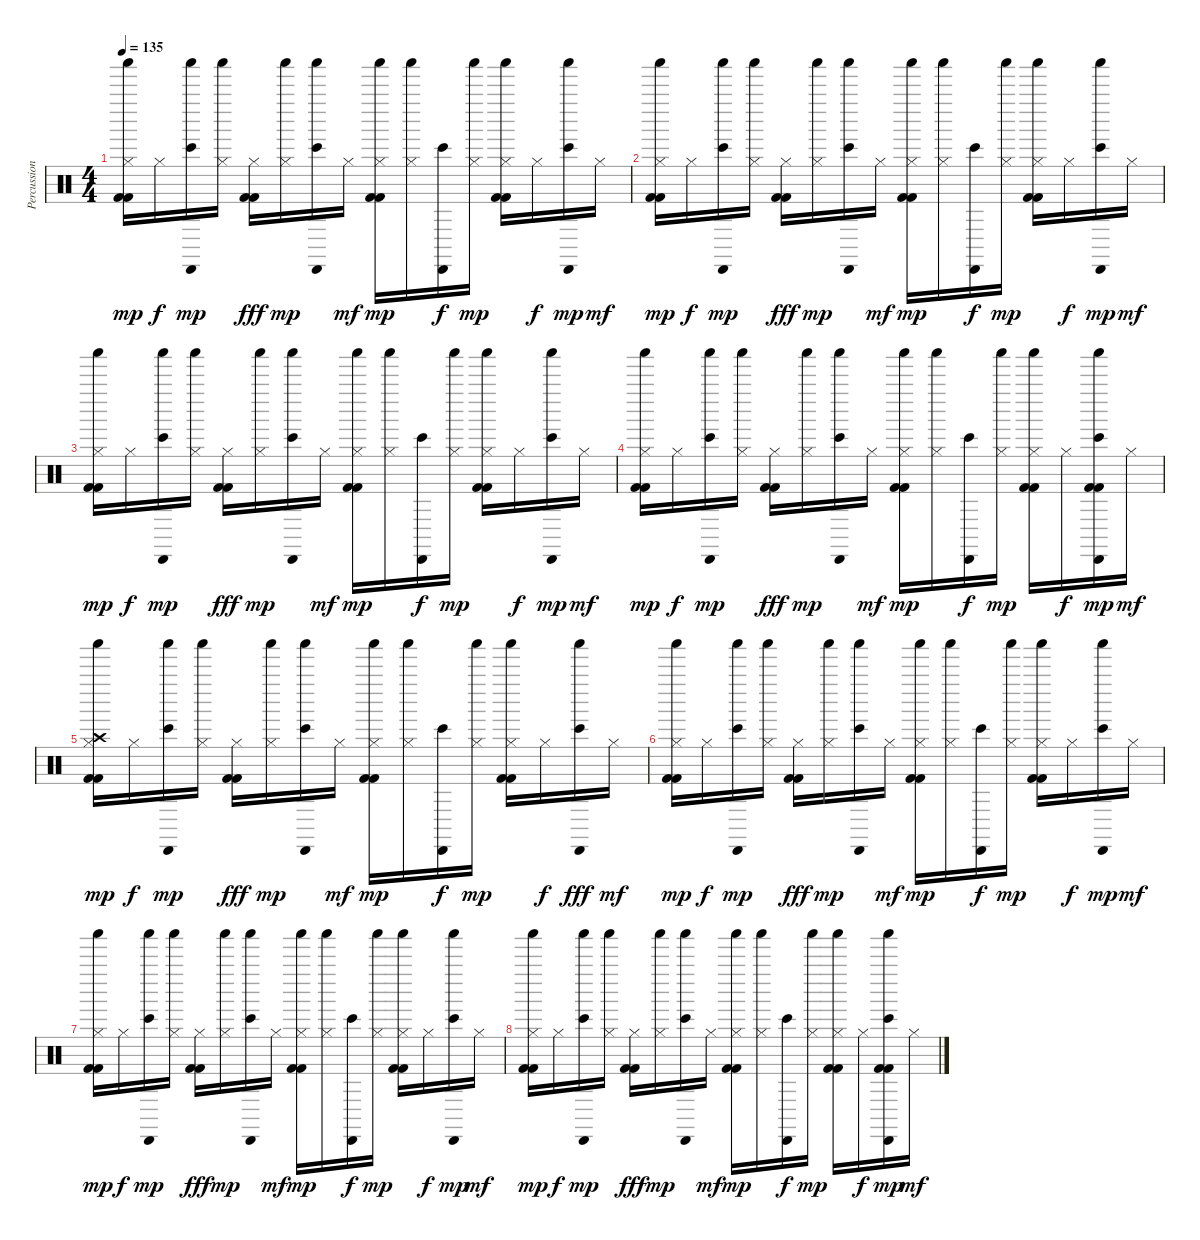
\track ("Percussion" "Percussion") {instrument percussion}
\staff {score}
\articulation defaults
\ts (4 4)
\tempo 135
\clef neutral
\ks c
("Hi-Hat (closed)" "Kick (hit) 2" "Kick (hit) 2" "Shaker (hit)").16{dy mp} "Hi-Hat (closed)".16{dy f} ("Cabasa (hit)" "Bongo High (hit)" "Shaker (hit)").16{dy mp} ("Hi-Hat (closed)" "Shaker (hit)").16 ("Hi-Hat (closed)" "Kick (hit) 2" "Kick (hit) 2").16{dy fff} ("Hi-Hat (closed)" "Shaker (hit)").16{dy mp} ("Cabasa (hit)" "Bongo High (hit)" "Shaker (hit)").16 "Hi-Hat (closed)".16{dy mf} ("Hi-Hat (closed)" "Kick (hit) 2" "Kick (hit) 2" "Shaker (hit)").16{dy mp} ("Hi-Hat (closed)" "Shaker (hit)").16 ("Cabasa (hit)" "Bongo High (hit)").16{dy f} ("Hi-Hat (closed)" "Shaker (hit)").16{dy mp} ("Hi-Hat (closed)" "Kick (hit) 2" "Kick (hit) 2" "Shaker (hit)").16 "Hi-Hat (closed)".16{dy f} ("Cabasa (hit)" "Bongo High (hit)" "Shaker (hit)").16{dy mp} "Hi-Hat (closed)".16{dy mf} |
("Hi-Hat (closed)" "Kick (hit) 2" "Kick (hit) 2" "Shaker (hit)").16{dy mp} "Hi-Hat (closed)".16{dy f} ("Cabasa (hit)" "Bongo High (hit)" "Shaker (hit)").16{dy mp} ("Hi-Hat (closed)" "Shaker (hit)").16 ("Hi-Hat (closed)" "Kick (hit) 2" "Kick (hit) 2").16{dy fff} ("Hi-Hat (closed)" "Shaker (hit)").16{dy mp} ("Cabasa (hit)" "Bongo High (hit)" "Shaker (hit)").16 "Hi-Hat (closed)".16{dy mf} ("Hi-Hat (closed)" "Kick (hit) 2" "Kick (hit) 2" "Shaker (hit)").16{dy mp} ("Hi-Hat (closed)" "Shaker (hit)").16 ("Cabasa (hit)" "Bongo High (hit)").16{dy f} ("Hi-Hat (closed)" "Shaker (hit)").16{dy mp} ("Hi-Hat (closed)" "Kick (hit) 2" "Kick (hit) 2" "Shaker (hit)").16 "Hi-Hat (closed)".16{dy f} ("Cabasa (hit)" "Bongo High (hit)" "Shaker (hit)").16{dy mp} "Hi-Hat (closed)".16{dy mf} |
("Hi-Hat (closed)" "Kick (hit) 2" "Kick (hit) 2" "Shaker (hit)").16{dy mp} "Hi-Hat (closed)".16{dy f} ("Cabasa (hit)" "Bongo High (hit)" "Shaker (hit)").16{dy mp} ("Hi-Hat (closed)" "Shaker (hit)").16 ("Hi-Hat (closed)" "Kick (hit) 2" "Kick (hit) 2").16{dy fff} ("Hi-Hat (closed)" "Shaker (hit)").16{dy mp} ("Cabasa (hit)" "Bongo High (hit)" "Shaker (hit)").16 "Hi-Hat (closed)".16{dy mf} ("Hi-Hat (closed)" "Kick (hit) 2" "Kick (hit) 2" "Shaker (hit)").16{dy mp} ("Hi-Hat (closed)" "Shaker (hit)").16 ("Cabasa (hit)" "Bongo High (hit)").16{dy f} ("Hi-Hat (closed)" "Shaker (hit)").16{dy mp} ("Hi-Hat (closed)" "Kick (hit) 2" "Kick (hit) 2" "Shaker (hit)").16 "Hi-Hat (closed)".16{dy f} ("Cabasa (hit)" "Bongo High (hit)" "Shaker (hit)").16{dy mp} "Hi-Hat (closed)".16{dy mf} |
("Hi-Hat (closed)" "Kick (hit) 2" "Kick (hit) 2" "Shaker (hit)").16{dy mp} "Hi-Hat (closed)".16{dy f} ("Cabasa (hit)" "Bongo High (hit)" "Shaker (hit)").16{dy mp} ("Hi-Hat (closed)" "Shaker (hit)").16 ("Hi-Hat (closed)" "Kick (hit) 2" "Kick (hit) 2").16{dy fff} ("Hi-Hat (closed)" "Shaker (hit)").16{dy mp} ("Cabasa (hit)" "Bongo High (hit)" "Shaker (hit)").16 "Hi-Hat (closed)".16{dy mf} ("Hi-Hat (closed)" "Kick (hit) 2" "Kick (hit) 2" "Shaker (hit)").16{dy mp} ("Hi-Hat (closed)" "Shaker (hit)").16 ("Cabasa (hit)" "Bongo High (hit)").16{dy f} ("Hi-Hat (closed)" "Shaker (hit)").16{dy mp} ("Hi-Hat (closed)" "Kick (hit) 2" "Kick (hit) 2" "Shaker (hit)").16 "Hi-Hat (closed)".16{dy f} ("Cabasa (hit)" "Bongo High (hit)" "Kick (hit) 2" "Kick (hit) 2" "Shaker (hit)").16{dy mp} "Hi-Hat (closed)".16{dy mf} |
("Crash high (hit)" "Hi-Hat (closed)" "Kick (hit) 2" "Kick (hit) 2" "Shaker (hit)").16{dy mp} "Hi-Hat (closed)".16{dy f} ("Cabasa (hit)" "Bongo High (hit)" "Shaker (hit)").16{dy mp} ("Hi-Hat (closed)" "Shaker (hit)").16 ("Hi-Hat (closed)" "Kick (hit) 2" "Kick (hit) 2").16{dy fff} ("Hi-Hat (closed)" "Shaker (hit)").16{dy mp} ("Cabasa (hit)" "Bongo High (hit)" "Shaker (hit)").16 "Hi-Hat (closed)".16{dy mf} ("Hi-Hat (closed)" "Kick (hit) 2" "Kick (hit) 2" "Shaker (hit)").16{dy mp} ("Hi-Hat (closed)" "Shaker (hit)").16 ("Cabasa (hit)" "Bongo High (hit)").16{dy f} ("Hi-Hat (closed)" "Shaker (hit)").16{dy mp} ("Hi-Hat (closed)" "Kick (hit) 2" "Kick (hit) 2" "Shaker (hit)").16 "Hi-Hat (closed)".16{dy f} ("Cabasa (hit)" "Bongo High (hit)" "Shaker (hit)").16{dy fff} "Hi-Hat (closed)".16{dy mf} |
("Hi-Hat (closed)" "Kick (hit) 2" "Kick (hit) 2" "Shaker (hit)").16{dy mp} "Hi-Hat (closed)".16{dy f} ("Cabasa (hit)" "Bongo High (hit)" "Shaker (hit)").16{dy mp} ("Hi-Hat (closed)" "Shaker (hit)").16 ("Hi-Hat (closed)" "Kick (hit) 2" "Kick (hit) 2").16{dy fff} ("Hi-Hat (closed)" "Shaker (hit)").16{dy mp} ("Cabasa (hit)" "Bongo High (hit)" "Shaker (hit)").16 "Hi-Hat (closed)".16{dy mf} ("Hi-Hat (closed)" "Kick (hit) 2" "Kick (hit) 2" "Shaker (hit)").16{dy mp} ("Hi-Hat (closed)" "Shaker (hit)").16 ("Cabasa (hit)" "Bongo High (hit)").16{dy f} ("Hi-Hat (closed)" "Shaker (hit)").16{dy mp} ("Hi-Hat (closed)" "Kick (hit) 2" "Kick (hit) 2" "Shaker (hit)").16 "Hi-Hat (closed)".16{dy f} ("Cabasa (hit)" "Bongo High (hit)" "Shaker (hit)").16{dy mp} "Hi-Hat (closed)".16{dy mf} |
("Hi-Hat (closed)" "Kick (hit) 2" "Kick (hit) 2" "Shaker (hit)").16{dy mp} "Hi-Hat (closed)".16{dy f} ("Cabasa (hit)" "Bongo High (hit)" "Shaker (hit)").16{dy mp} ("Hi-Hat (closed)" "Shaker (hit)").16 ("Hi-Hat (closed)" "Kick (hit) 2" "Kick (hit) 2").16{dy fff} ("Hi-Hat (closed)" "Shaker (hit)").16{dy mp} ("Cabasa (hit)" "Bongo High (hit)" "Shaker (hit)").16 "Hi-Hat (closed)".16{dy mf} ("Hi-Hat (closed)" "Kick (hit) 2" "Kick (hit) 2" "Shaker (hit)").16{dy mp} ("Hi-Hat (closed)" "Shaker (hit)").16 ("Cabasa (hit)" "Bongo High (hit)").16{dy f} ("Hi-Hat (closed)" "Shaker (hit)").16{dy mp} ("Hi-Hat (closed)" "Kick (hit) 2" "Kick (hit) 2" "Shaker (hit)").16 "Hi-Hat (closed)".16{dy f} ("Cabasa (hit)" "Bongo High (hit)" "Shaker (hit)").16{dy mp} "Hi-Hat (closed)".16{dy mf} |
("Hi-Hat (closed)" "Kick (hit) 2" "Kick (hit) 2" "Shaker (hit)").16{dy mp} "Hi-Hat (closed)".16{dy f} ("Cabasa (hit)" "Bongo High (hit)" "Shaker (hit)").16{dy mp} ("Hi-Hat (closed)" "Shaker (hit)").16 ("Hi-Hat (closed)" "Kick (hit) 2" "Kick (hit) 2").16{dy fff} ("Hi-Hat (closed)" "Shaker (hit)").16{dy mp} ("Cabasa (hit)" "Bongo High (hit)" "Shaker (hit)").16 "Hi-Hat (closed)".16{dy mf} ("Hi-Hat (closed)" "Kick (hit) 2" "Kick (hit) 2" "Shaker (hit)").16{dy mp} ("Hi-Hat (closed)" "Shaker (hit)").16 ("Cabasa (hit)" "Bongo High (hit)").16{dy f} ("Hi-Hat (closed)" "Shaker (hit)").16{dy mp} ("Hi-Hat (closed)" "Kick (hit) 2" "Kick (hit) 2" "Shaker (hit)").16 "Hi-Hat (closed)".16{dy f} ("Cabasa (hit)" "Bongo High (hit)" "Kick (hit) 2" "Kick (hit) 2" "Shaker (hit)").16{dy mp} "Hi-Hat (closed)".16{dy mf}
